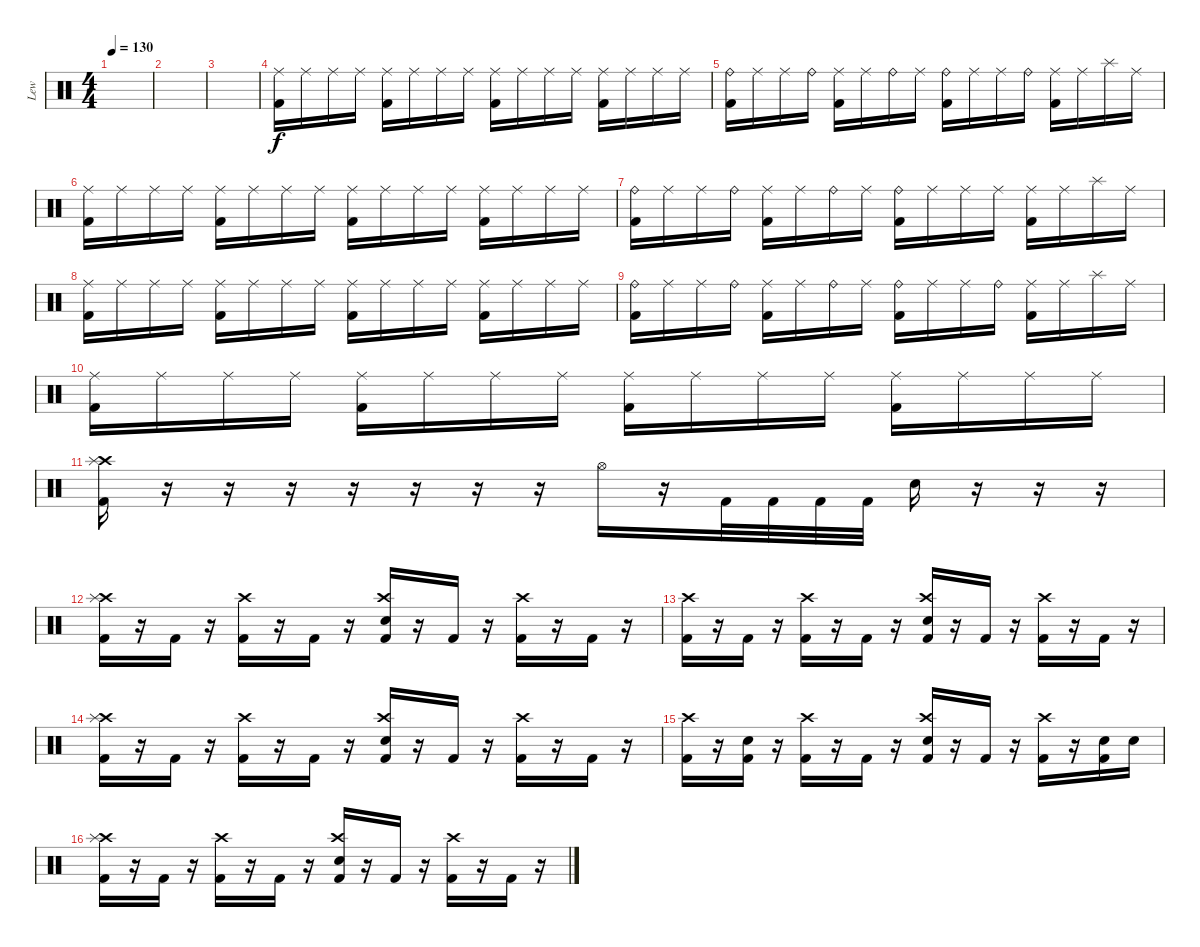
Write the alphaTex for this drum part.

\track ("Lew" "Lew") {instrument percussion}
\staff {score}
\articulation defaults
\ts (4 4)
\tempo 130
\clef neutral
\ks c
|
|
|
("Ride (middle)" "Kick (hit) 2").16 "Ride (middle)".16 "Ride (middle)".16 "Ride (middle)".16 ("Ride (middle)" "Kick (hit) 2").16 "Ride (middle)".16 "Ride (middle)".16 "Ride (middle)".16 ("Ride (middle)" "Kick (hit) 2").16 "Ride (middle)".16 "Ride (middle)".16 "Ride (middle)".16 ("Ride (middle)" "Kick (hit) 2").16 "Ride (middle)".16 "Ride (middle)".16 "Ride (middle)".16 |
("Ride (bell)" "Kick (hit) 2").16 "Ride (middle)".16 "Ride (middle)".16 "Ride (bell)".16 ("Ride (middle)" "Kick (hit) 2").16 "Ride (middle)".16 "Ride (bell)".16 "Ride (middle)".16 ("Ride (bell)" "Kick (hit) 2").16 "Ride (middle)".16 "Ride (middle)".16 "Ride (bell)".16 ("Ride (middle)" "Kick (hit) 2").16 "Ride (middle)".16 "Splash (hit)".16 "Ride (middle)".16 |
("Ride (middle)" "Kick (hit) 2").16 "Ride (middle)".16 "Ride (middle)".16 "Ride (middle)".16 ("Ride (middle)" "Kick (hit) 2").16 "Ride (middle)".16 "Ride (middle)".16 "Ride (middle)".16 ("Ride (middle)" "Kick (hit) 2").16 "Ride (middle)".16 "Ride (middle)".16 "Ride (middle)".16 ("Ride (middle)" "Kick (hit) 2").16 "Ride (middle)".16 "Ride (middle)".16 "Ride (middle)".16 |
("Ride (bell)" "Kick (hit) 2").16 "Ride (middle)".16 "Ride (middle)".16 "Ride (bell)".16 ("Ride (middle)" "Kick (hit) 2").16 "Ride (middle)".16 "Ride (bell)".16 "Ride (middle)".16 ("Ride (bell)" "Kick (hit) 2").16 "Ride (middle)".16 "Ride (middle)".16 "Ride (middle)".16 ("Ride (middle)" "Kick (hit) 2").16 "Ride (middle)".16 "Splash (hit)".16 "Ride (middle)".16 |
("Ride (middle)" "Kick (hit) 2").16 "Ride (middle)".16 "Ride (middle)".16 "Ride (middle)".16 ("Ride (middle)" "Kick (hit) 2").16 "Ride (middle)".16 "Ride (middle)".16 "Ride (middle)".16 ("Ride (middle)" "Kick (hit) 2").16 "Ride (middle)".16 "Ride (middle)".16 "Ride (middle)".16 ("Ride (middle)" "Kick (hit) 2").16 "Ride (middle)".16 "Ride (middle)".16 "Ride (middle)".16 |
("Ride (bell)" "Kick (hit) 2").16 "Ride (middle)".16 "Ride (middle)".16 "Ride (bell)".16 ("Ride (middle)" "Kick (hit) 2").16 "Ride (middle)".16 "Ride (bell)".16 "Ride (middle)".16 ("Ride (bell)" "Kick (hit) 2").16 "Ride (middle)".16 "Ride (middle)".16 "Ride (bell)".16 ("Ride (middle)" "Kick (hit) 2").16 "Ride (middle)".16 "Splash (hit)".16 "Ride (middle)".16 |
("Ride (middle)" "Kick (hit) 2").16 "Ride (middle)".16 "Ride (middle)".16 "Ride (middle)".16 ("Ride (middle)" "Kick (hit) 2").16 "Ride (middle)".16 "Ride (middle)".16 "Ride (middle)".16 ("Ride (middle)" "Kick (hit) 2").16 "Ride (middle)".16 "Ride (middle)".16 "Ride (middle)".16 ("Ride (middle)" "Kick (hit) 2").16 "Ride (middle)".16 "Ride (middle)".16 "Ride (middle)".16 |
("Crash high (hit)" "Splash (hit)" "Kick (hit) 2").16 r.16 r.16 r.16 r.16 r.16 r.16 r.16 "Hi-Hat (open)".16 r.16 "Kick (hit) 2".32 "Kick (hit) 2".32 "Kick (hit) 2".32 "Kick (hit) 2".32 "Electric Snare (hit)".16 r.16 r.16 r.16 |
("Crash high (hit)" "Splash (hit)" "Kick (hit) 2").16 r.16 "Kick (hit) 2".16 r.16 ("Crash high (hit)" "Kick (hit) 2").16 r.16 "Kick (hit) 2".16 r.16 ("Crash high (hit)" "Electric Snare (hit)" "Kick (hit) 2").16 r.16 "Kick (hit) 2".16 r.16 ("Crash high (hit)" "Kick (hit) 2").16 r.16 "Kick (hit) 2".16 r.16 |
("Crash high (hit)" "Kick (hit) 2").16 r.16 "Kick (hit) 2".16 r.16 ("Crash high (hit)" "Kick (hit) 2").16 r.16 "Kick (hit) 2".16 r.16 ("Crash high (hit)" "Electric Snare (hit)" "Kick (hit) 2").16 r.16 "Kick (hit) 2".16 r.16 ("Crash high (hit)" "Kick (hit) 2").16 r.16 "Kick (hit) 2".16 r.16 |
("Crash high (hit)" "Splash (hit)" "Kick (hit) 2").16 r.16 "Kick (hit) 2".16 r.16 ("Crash high (hit)" "Kick (hit) 2").16 r.16 "Kick (hit) 2".16 r.16 ("Crash high (hit)" "Electric Snare (hit)" "Kick (hit) 2").16 r.16 "Kick (hit) 2".16 r.16 ("Crash high (hit)" "Kick (hit) 2").16 r.16 "Kick (hit) 2".16 r.16 |
("Crash high (hit)" "Kick (hit) 2").16 r.16 ("Electric Snare (hit)" "Kick (hit) 2").16 r.16 ("Crash high (hit)" "Kick (hit) 2").16 r.16 "Kick (hit) 2".16 r.16 ("Crash high (hit)" "Electric Snare (hit)" "Kick (hit) 2").16 r.16 "Kick (hit) 2".16 r.16 ("Crash high (hit)" "Kick (hit) 2").16 r.16 ("Electric Snare (hit)" "Kick (hit) 2").16 "Electric Snare (hit)".16 |
("Crash high (hit)" "Splash (hit)" "Kick (hit) 2").16 r.16 "Kick (hit) 2".16 r.16 ("Crash high (hit)" "Kick (hit) 2").16 r.16 "Kick (hit) 2".16 r.16 ("Crash high (hit)" "Electric Snare (hit)" "Kick (hit) 2").16 r.16 "Kick (hit) 2".16 r.16 ("Crash high (hit)" "Kick (hit) 2").16 r.16 "Kick (hit) 2".16 r.16
